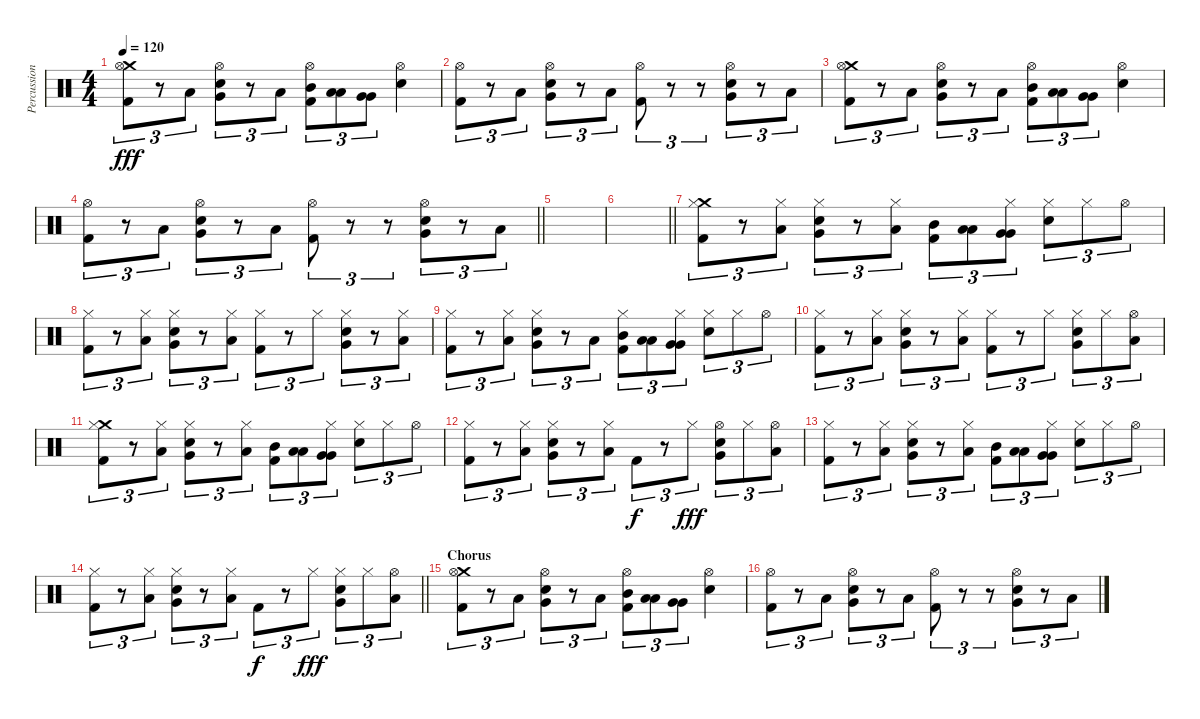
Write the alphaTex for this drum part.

\track ("Percussion" "Percussion") {instrument percussion}
\staff {score}
\articulation defaults
\ts (4 4)
\tempo 120
\clef neutral
\ks c
("Crash medium (hit)" "Hi-Hat (open)" "Kick (hit) 2").8{tu (3 2) dy fff} r.8{tu (3 2)} "Low Tom (hit)".8{tu (3 2)} ("Very Low Tom (hit)" "Hi-Hat (open)" "Snare (hit) 2").8{tu (3 2)} r.8{tu (3 2)} "Low Tom (hit)".8{tu (3 2)} ("Mid Tom (hit)" "Hi-Hat (open)" "Kick (hit) 2").8{tu (3 2)} ("Low Tom (hit)" "Low Tom (hit)").8{tu (3 2)} ("Very Low Tom (hit)" "Very Low Tom (hit)").8{tu (3 2)} ("Hi-Hat (open)" "Snare (hit) 2").4 |
("Hi-Hat (open)" "Kick (hit) 2").8{tu (3 2)} r.8{tu (3 2)} "Low Tom (hit)".8{tu (3 2)} ("Very Low Tom (hit)" "Hi-Hat (open)" "Snare (hit) 2").8{tu (3 2)} r.8{tu (3 2)} "Low Tom (hit)".8{tu (3 2)} ("Hi-Hat (open)" "Kick (hit) 2").8{tu (3 2)} r.8{tu (3 2)} r.8{tu (3 2)} ("Very Low Tom (hit)" "Hi-Hat (open)" "Snare (hit) 2").8{tu (3 2)} r.8{tu (3 2)} "Low Tom (hit)".8{tu (3 2)} |
("Crash medium (hit)" "Hi-Hat (open)" "Kick (hit) 2").8{tu (3 2)} r.8{tu (3 2)} "Low Tom (hit)".8{tu (3 2)} ("Very Low Tom (hit)" "Hi-Hat (open)" "Snare (hit) 2").8{tu (3 2)} r.8{tu (3 2)} "Low Tom (hit)".8{tu (3 2)} ("Mid Tom (hit)" "Hi-Hat (open)" "Kick (hit) 2").8{tu (3 2)} ("Low Tom (hit)" "Low Tom (hit)").8{tu (3 2)} ("Very Low Tom (hit)" "Very Low Tom (hit)").8{tu (3 2)} ("Hi-Hat (open)" "Snare (hit) 2").4 |
\barLineRight lightlight
("Hi-Hat (open)" "Kick (hit) 2").8{tu (3 2)} r.8{tu (3 2)} "Low Tom (hit)".8{tu (3 2)} ("Very Low Tom (hit)" "Hi-Hat (open)" "Snare (hit) 2").8{tu (3 2)} r.8{tu (3 2)} "Low Tom (hit)".8{tu (3 2)} ("Hi-Hat (open)" "Kick (hit) 2").8{tu (3 2)} r.8{tu (3 2)} r.8{tu (3 2)} ("Very Low Tom (hit)" "Hi-Hat (open)" "Snare (hit) 2").8{tu (3 2)} r.8{tu (3 2)} "Low Tom (hit)".8{tu (3 2)} |
\section ("" "")
|
\barLineRight lightlight
|
\section ("" "")
("Crash medium (hit)" "Hi-Hat (closed)" "Kick (hit) 2").8{tu (3 2)} r.8{tu (3 2)} ("Low Tom (hit)" "Hi-Hat (closed)").8{tu (3 2)} ("Very Low Tom (hit)" "Hi-Hat (closed)" "Snare (hit) 2").8{tu (3 2)} r.8{tu (3 2)} ("Low Tom (hit)" "Hi-Hat (closed)").8{tu (3 2)} ("Mid Tom (hit)" "Kick (hit) 2").8{tu (3 2)} ("Low Tom (hit)" "Low Tom (hit)").8{tu (3 2)} ("Very Low Tom (hit)" "Very Low Tom (hit)" "Hi-Hat (closed)").8{tu (3 2)} ("Hi-Hat (closed)" "Snare (hit) 2").8{tu (3 2)} "Hi-Hat (closed)".8{tu (3 2)} "Hi-Hat (open)".8{tu (3 2)} |
("Hi-Hat (closed)" "Kick (hit) 2").8{tu (3 2)} r.8{tu (3 2)} ("Low Tom (hit)" "Hi-Hat (closed)").8{tu (3 2)} ("Very Low Tom (hit)" "Hi-Hat (closed)" "Snare (hit) 2").8{tu (3 2)} r.8{tu (3 2)} ("Low Tom (hit)" "Hi-Hat (closed)").8{tu (3 2)} ("Hi-Hat (closed)" "Kick (hit) 2").8{tu (3 2)} r.8{tu (3 2)} "Hi-Hat (closed)".8{tu (3 2)} ("Very Low Tom (hit)" "Hi-Hat (closed)" "Snare (hit) 2").8{tu (3 2)} r.8{tu (3 2)} ("Low Tom (hit)" "Hi-Hat (closed)").8{tu (3 2)} |
("Hi-Hat (closed)" "Kick (hit) 2").8{tu (3 2)} r.8{tu (3 2)} ("Low Tom (hit)" "Hi-Hat (closed)").8{tu (3 2)} ("Very Low Tom (hit)" "Hi-Hat (closed)" "Snare (hit) 2").8{tu (3 2)} r.8{tu (3 2)} "Low Tom (hit)".8{tu (3 2)} ("Mid Tom (hit)" "Hi-Hat (closed)" "Kick (hit) 2").8{tu (3 2)} ("Low Tom (hit)" "Low Tom (hit)").8{tu (3 2)} ("Very Low Tom (hit)" "Very Low Tom (hit)" "Hi-Hat (closed)").8{tu (3 2)} ("Hi-Hat (closed)" "Snare (hit) 2").8{tu (3 2)} "Hi-Hat (closed)".8{tu (3 2)} "Hi-Hat (open)".8{tu (3 2)} |
("Hi-Hat (closed)" "Kick (hit) 2").8{tu (3 2)} r.8{tu (3 2)} ("Low Tom (hit)" "Hi-Hat (closed)").8{tu (3 2)} ("Very Low Tom (hit)" "Hi-Hat (closed)" "Snare (hit) 2").8{tu (3 2)} r.8{tu (3 2)} ("Low Tom (hit)" "Hi-Hat (closed)").8{tu (3 2)} ("Hi-Hat (closed)" "Kick (hit) 2").8{tu (3 2)} r.8{tu (3 2)} "Hi-Hat (closed)".8{tu (3 2)} ("Very Low Tom (hit)" "Hi-Hat (closed)" "Snare (hit) 2").8{tu (3 2)} "Hi-Hat (closed)".8{tu (3 2)} ("Low Tom (hit)" "Hi-Hat (open)").8{tu (3 2)} |
("Crash medium (hit)" "Hi-Hat (closed)" "Kick (hit) 2").8{tu (3 2)} r.8{tu (3 2)} ("Low Tom (hit)" "Hi-Hat (closed)").8{tu (3 2)} ("Very Low Tom (hit)" "Hi-Hat (closed)" "Snare (hit) 2").8{tu (3 2)} r.8{tu (3 2)} ("Low Tom (hit)" "Hi-Hat (closed)").8{tu (3 2)} ("Mid Tom (hit)" "Kick (hit) 2").8{tu (3 2)} ("Low Tom (hit)" "Low Tom (hit)").8{tu (3 2)} ("Very Low Tom (hit)" "Very Low Tom (hit)" "Hi-Hat (closed)").8{tu (3 2)} ("Hi-Hat (closed)" "Snare (hit) 2").8{tu (3 2)} "Hi-Hat (closed)".8{tu (3 2)} "Hi-Hat (open)".8{tu (3 2)} |
("Hi-Hat (closed)" "Kick (hit) 2").8{tu (3 2)} r.8{tu (3 2)} ("Low Tom (hit)" "Hi-Hat (closed)").8{tu (3 2)} ("Very Low Tom (hit)" "Hi-Hat (closed)" "Snare (hit) 2").8{tu (3 2)} r.8{tu (3 2)} ("Low Tom (hit)" "Hi-Hat (closed)").8{tu (3 2)} "Kick (hit) 2".8{tu (3 2) dy f} r.8{tu (3 2)} "Hi-Hat (closed)".8{tu (3 2) dy fff} ("Very Low Tom (hit)" "Hi-Hat (open)" "Snare (hit) 2").8{tu (3 2)} "Hi-Hat (closed)".8{tu (3 2)} ("Low Tom (hit)" "Hi-Hat (open)").8{tu (3 2)} |
("Hi-Hat (closed)" "Kick (hit) 2").8{tu (3 2)} r.8{tu (3 2)} ("Low Tom (hit)" "Hi-Hat (closed)").8{tu (3 2)} ("Very Low Tom (hit)" "Hi-Hat (closed)" "Snare (hit) 2").8{tu (3 2)} r.8{tu (3 2)} ("Low Tom (hit)" "Hi-Hat (closed)").8{tu (3 2)} ("Mid Tom (hit)" "Kick (hit) 2").8{tu (3 2)} ("Low Tom (hit)" "Low Tom (hit)").8{tu (3 2)} ("Very Low Tom (hit)" "Very Low Tom (hit)" "Hi-Hat (closed)").8{tu (3 2)} ("Hi-Hat (closed)" "Snare (hit) 2").8{tu (3 2)} "Hi-Hat (closed)".8{tu (3 2)} "Hi-Hat (open)".8{tu (3 2)} |
\barLineRight lightlight
("Hi-Hat (closed)" "Kick (hit) 2").8{tu (3 2)} r.8{tu (3 2)} ("Low Tom (hit)" "Hi-Hat (closed)").8{tu (3 2)} ("Very Low Tom (hit)" "Hi-Hat (closed)" "Snare (hit) 2").8{tu (3 2)} r.8{tu (3 2)} ("Low Tom (hit)" "Hi-Hat (closed)").8{tu (3 2)} "Kick (hit) 2".8{tu (3 2) dy f} r.8{tu (3 2)} "Hi-Hat (closed)".8{tu (3 2) dy fff} ("Very Low Tom (hit)" "Hi-Hat (closed)" "Snare (hit) 2").8{tu (3 2)} "Hi-Hat (closed)".8{tu (3 2)} ("Low Tom (hit)" "Hi-Hat (open)").8{tu (3 2)} |
\section ("" "Chorus")
("Crash medium (hit)" "Hi-Hat (open)" "Kick (hit) 2").8{tu (3 2)} r.8{tu (3 2)} "Low Tom (hit)".8{tu (3 2)} ("Very Low Tom (hit)" "Hi-Hat (open)" "Snare (hit) 2").8{tu (3 2)} r.8{tu (3 2)} "Low Tom (hit)".8{tu (3 2)} ("Mid Tom (hit)" "Hi-Hat (open)" "Kick (hit) 2").8{tu (3 2)} ("Low Tom (hit)" "Low Tom (hit)").8{tu (3 2)} ("Very Low Tom (hit)" "Very Low Tom (hit)").8{tu (3 2)} ("Hi-Hat (open)" "Snare (hit) 2").4 |
("Hi-Hat (open)" "Kick (hit) 2").8{tu (3 2)} r.8{tu (3 2)} "Low Tom (hit)".8{tu (3 2)} ("Very Low Tom (hit)" "Hi-Hat (open)" "Snare (hit) 2").8{tu (3 2)} r.8{tu (3 2)} "Low Tom (hit)".8{tu (3 2)} ("Hi-Hat (open)" "Kick (hit) 2").8{tu (3 2)} r.8{tu (3 2)} r.8{tu (3 2)} ("Very Low Tom (hit)" "Hi-Hat (open)" "Snare (hit) 2").8{tu (3 2)} r.8{tu (3 2)} "Low Tom (hit)".8{tu (3 2)}
